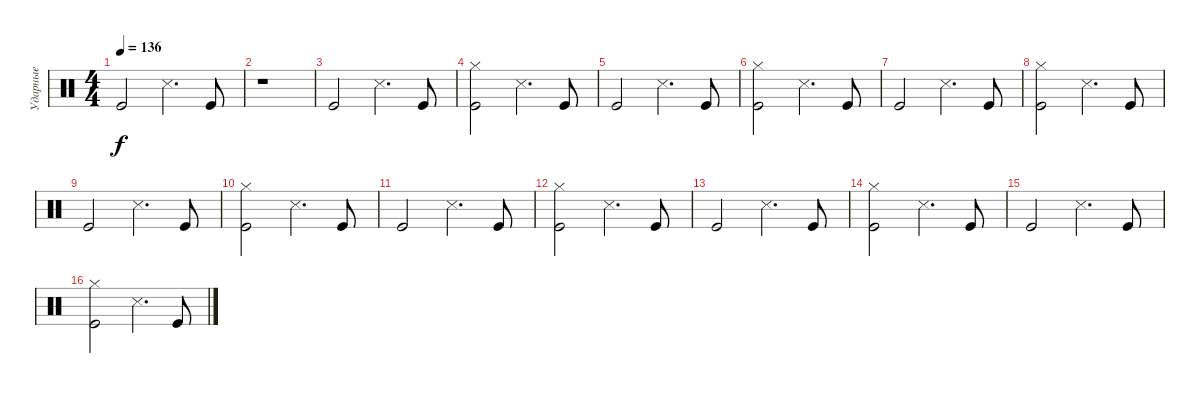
\track ("Ударные" "Ударные") {instrument percussion}
\staff {score}
\articulation defaults
\ts (4 4)
\tempo 136
\clef neutral
\ks c "Kick (hit)".2{dy f} "Snare (side stick) 3".4{d} "Kick (hit)".8
|
r.1 |
"Kick (hit)".2 "Snare (side stick) 3".4{d} "Kick (hit)".8 |
("Kick (hit)" "Hi-Hat (closed)").2 "Snare (side stick) 3".4{d} "Kick (hit)".8 |
"Kick (hit)".2 "Snare (side stick) 3".4{d} "Kick (hit)".8 |
("Kick (hit)" "Hi-Hat (closed)").2 "Snare (side stick) 3".4{d} "Kick (hit)".8 |
"Kick (hit)".2 "Snare (side stick) 3".4{d} "Kick (hit)".8 |
("Kick (hit)" "Hi-Hat (closed)").2 "Snare (side stick) 3".4{d} "Kick (hit)".8 |
"Kick (hit)".2 "Snare (side stick) 3".4{d} "Kick (hit)".8 |
("Kick (hit)" "Hi-Hat (closed)").2 "Snare (side stick) 3".4{d} "Kick (hit)".8 |
"Kick (hit)".2 "Snare (side stick) 3".4{d} "Kick (hit)".8 |
("Kick (hit)" "Hi-Hat (closed)").2 "Snare (side stick) 3".4{d} "Kick (hit)".8 |
"Kick (hit)".2 "Snare (side stick) 3".4{d} "Kick (hit)".8 |
("Kick (hit)" "Hi-Hat (closed)").2 "Snare (side stick) 3".4{d} "Kick (hit)".8 |
"Kick (hit)".2 "Snare (side stick) 3".4{d} "Kick (hit)".8 |
("Kick (hit)" "Hi-Hat (closed)").2 "Snare (side stick) 3".4{d} "Kick (hit)".8
